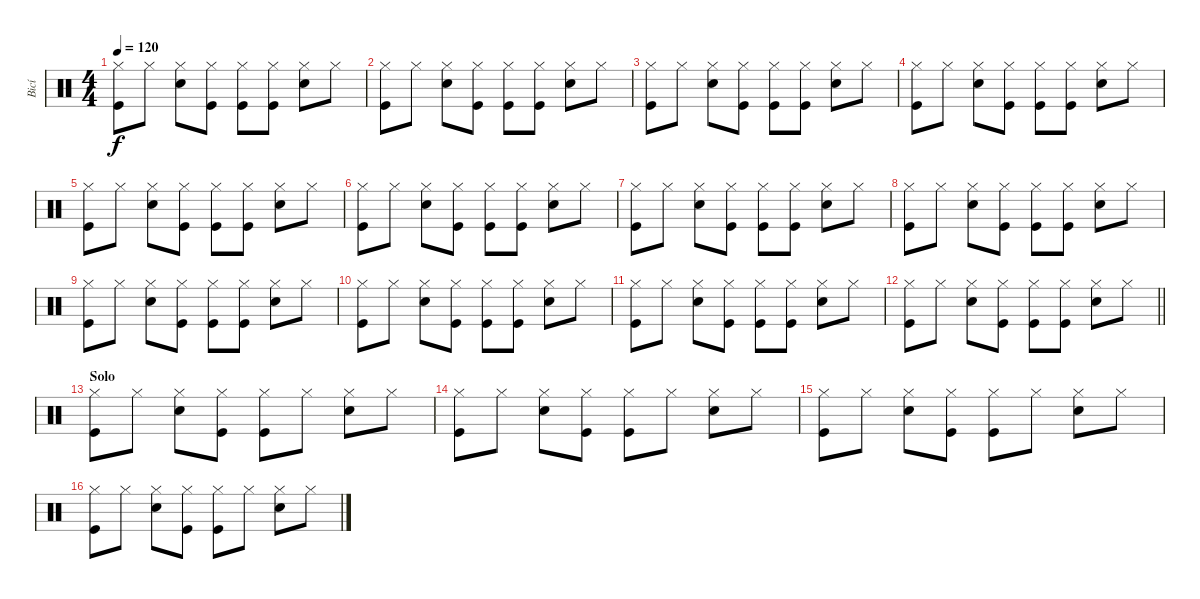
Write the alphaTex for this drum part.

\track ("Bicí" "Bicí") {instrument percussion}
\staff {score}
\articulation defaults
\ts (4 4)
\tempo 120
\clef neutral
\ks c
("Hi-Hat (closed)" "Kick (hit)").8{dy f} "Hi-Hat (closed)".8 ("Hi-Hat (closed)" "Snare (hit) 2").8 ("Hi-Hat (closed)" "Kick (hit)").8 ("Hi-Hat (closed)" "Kick (hit)").8 ("Hi-Hat (closed)" "Kick (hit)").8 ("Hi-Hat (closed)" "Snare (hit) 2").8 "Hi-Hat (closed)".8 |
("Hi-Hat (closed)" "Kick (hit)").8 "Hi-Hat (closed)".8 ("Hi-Hat (closed)" "Snare (hit) 2").8 ("Hi-Hat (closed)" "Kick (hit)").8 ("Hi-Hat (closed)" "Kick (hit)").8 ("Hi-Hat (closed)" "Kick (hit)").8 ("Hi-Hat (closed)" "Snare (hit) 2").8 "Hi-Hat (closed)".8 |
("Hi-Hat (closed)" "Kick (hit)").8 "Hi-Hat (closed)".8 ("Hi-Hat (closed)" "Snare (hit) 2").8 ("Hi-Hat (closed)" "Kick (hit)").8 ("Hi-Hat (closed)" "Kick (hit)").8 ("Hi-Hat (closed)" "Kick (hit)").8 ("Hi-Hat (closed)" "Snare (hit) 2").8 "Hi-Hat (closed)".8 |
("Hi-Hat (closed)" "Kick (hit)").8 "Hi-Hat (closed)".8 ("Hi-Hat (closed)" "Snare (hit) 2").8 ("Hi-Hat (closed)" "Kick (hit)").8 ("Hi-Hat (closed)" "Kick (hit)").8 ("Hi-Hat (closed)" "Kick (hit)").8 ("Hi-Hat (closed)" "Snare (hit) 2").8 "Hi-Hat (closed)".8 |
("Hi-Hat (closed)" "Kick (hit)").8 "Hi-Hat (closed)".8 ("Hi-Hat (closed)" "Snare (hit) 2").8 ("Hi-Hat (closed)" "Kick (hit)").8 ("Hi-Hat (closed)" "Kick (hit)").8 ("Hi-Hat (closed)" "Kick (hit)").8 ("Hi-Hat (closed)" "Snare (hit) 2").8 "Hi-Hat (closed)".8 |
("Hi-Hat (closed)" "Kick (hit)").8 "Hi-Hat (closed)".8 ("Hi-Hat (closed)" "Snare (hit) 2").8 ("Hi-Hat (closed)" "Kick (hit)").8 ("Hi-Hat (closed)" "Kick (hit)").8 ("Hi-Hat (closed)" "Kick (hit)").8 ("Hi-Hat (closed)" "Snare (hit) 2").8 "Hi-Hat (closed)".8 |
("Hi-Hat (closed)" "Kick (hit)").8 "Hi-Hat (closed)".8 ("Hi-Hat (closed)" "Snare (hit) 2").8 ("Hi-Hat (closed)" "Kick (hit)").8 ("Hi-Hat (closed)" "Kick (hit)").8 ("Hi-Hat (closed)" "Kick (hit)").8 ("Hi-Hat (closed)" "Snare (hit) 2").8 "Hi-Hat (closed)".8 |
("Hi-Hat (closed)" "Kick (hit)").8 "Hi-Hat (closed)".8 ("Hi-Hat (closed)" "Snare (hit) 2").8 ("Hi-Hat (closed)" "Kick (hit)").8 ("Hi-Hat (closed)" "Kick (hit)").8 ("Hi-Hat (closed)" "Kick (hit)").8 ("Hi-Hat (closed)" "Snare (hit) 2").8 "Hi-Hat (closed)".8 |
("Hi-Hat (closed)" "Kick (hit)").8 "Hi-Hat (closed)".8 ("Hi-Hat (closed)" "Snare (hit) 2").8 ("Hi-Hat (closed)" "Kick (hit)").8 ("Hi-Hat (closed)" "Kick (hit)").8 ("Hi-Hat (closed)" "Kick (hit)").8 ("Hi-Hat (closed)" "Snare (hit) 2").8 "Hi-Hat (closed)".8 |
("Hi-Hat (closed)" "Kick (hit)").8 "Hi-Hat (closed)".8 ("Hi-Hat (closed)" "Snare (hit) 2").8 ("Hi-Hat (closed)" "Kick (hit)").8 ("Hi-Hat (closed)" "Kick (hit)").8 ("Hi-Hat (closed)" "Kick (hit)").8 ("Hi-Hat (closed)" "Snare (hit) 2").8 "Hi-Hat (closed)".8 |
("Hi-Hat (closed)" "Kick (hit)").8 "Hi-Hat (closed)".8 ("Hi-Hat (closed)" "Snare (hit) 2").8 ("Hi-Hat (closed)" "Kick (hit)").8 ("Hi-Hat (closed)" "Kick (hit)").8 ("Hi-Hat (closed)" "Kick (hit)").8 ("Hi-Hat (closed)" "Snare (hit) 2").8 "Hi-Hat (closed)".8 |
\barLineRight lightlight
("Hi-Hat (closed)" "Kick (hit)").8 "Hi-Hat (closed)".8 ("Hi-Hat (closed)" "Snare (hit) 2").8 ("Hi-Hat (closed)" "Kick (hit)").8 ("Hi-Hat (closed)" "Kick (hit)").8 ("Hi-Hat (closed)" "Kick (hit)").8 ("Hi-Hat (closed)" "Snare (hit) 2").8 "Hi-Hat (closed)".8 |
\section ("" "Solo")
("Hi-Hat (closed)" "Kick (hit)").8 "Hi-Hat (closed)".8 ("Hi-Hat (closed)" "Snare (hit) 2").8 ("Hi-Hat (closed)" "Kick (hit)").8 ("Hi-Hat (closed)" "Kick (hit)").8 "Hi-Hat (closed)".8 ("Hi-Hat (closed)" "Snare (hit) 2").8 "Hi-Hat (closed)".8 |
("Hi-Hat (closed)" "Kick (hit)").8 "Hi-Hat (closed)".8 ("Hi-Hat (closed)" "Snare (hit) 2").8 ("Hi-Hat (closed)" "Kick (hit)").8 ("Hi-Hat (closed)" "Kick (hit)").8 "Hi-Hat (closed)".8 ("Hi-Hat (closed)" "Snare (hit) 2").8 "Hi-Hat (closed)".8 |
("Hi-Hat (closed)" "Kick (hit)").8 "Hi-Hat (closed)".8 ("Hi-Hat (closed)" "Snare (hit) 2").8 ("Hi-Hat (closed)" "Kick (hit)").8 ("Hi-Hat (closed)" "Kick (hit)").8 "Hi-Hat (closed)".8 ("Hi-Hat (closed)" "Snare (hit) 2").8 "Hi-Hat (closed)".8 |
("Hi-Hat (closed)" "Kick (hit)").8 "Hi-Hat (closed)".8 ("Hi-Hat (closed)" "Snare (hit) 2").8 ("Hi-Hat (closed)" "Kick (hit)").8 ("Hi-Hat (closed)" "Kick (hit)").8 "Hi-Hat (closed)".8 ("Hi-Hat (closed)" "Snare (hit) 2").8 "Hi-Hat (closed)".8
